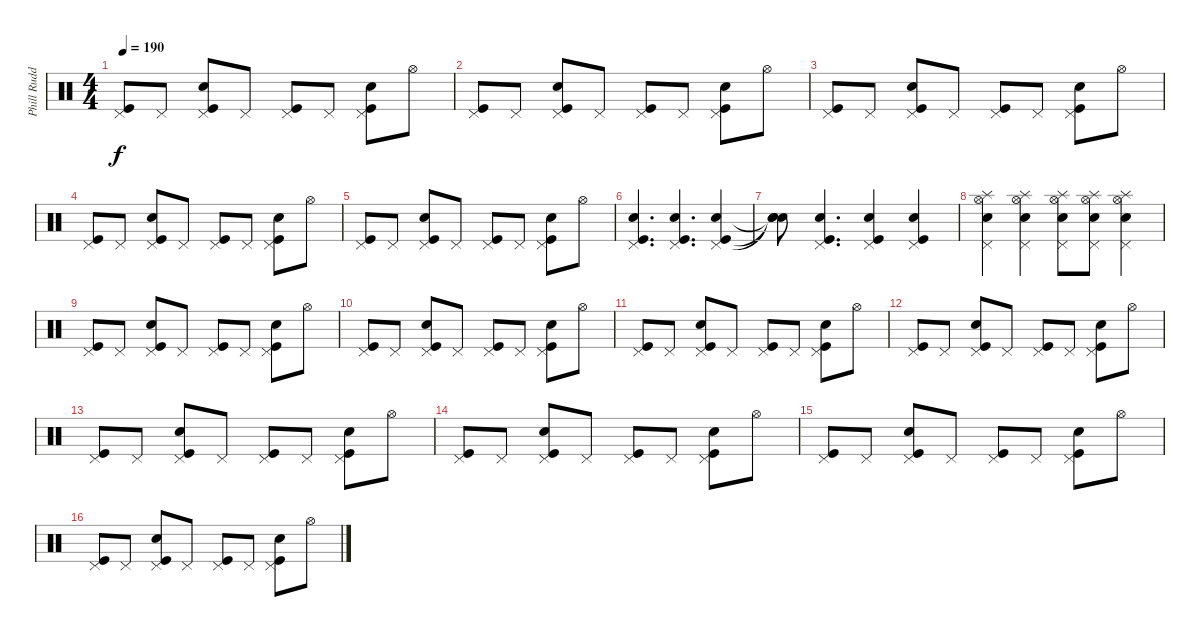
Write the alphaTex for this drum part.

\track ("Phill Rudd (Drums)" "Phill Rudd") {instrument percussion}
\staff {score}
\articulation defaults
\ts (4 4)
\tempo 190
\clef neutral
\ks c
("Pedal Hi-Hat (hit)" "Kick (hit)").8{dy f} "Pedal Hi-Hat (hit)".8 ("Pedal Hi-Hat (hit)" "Snare (hit) 2" "Kick (hit)").8 "Pedal Hi-Hat (hit)".8 ("Pedal Hi-Hat (hit)" "Kick (hit)").8 "Pedal Hi-Hat (hit)".8 ("Pedal Hi-Hat (hit)" "Snare (hit) 2" "Kick (hit)").8 "Hi-Hat (open)".8 |
("Pedal Hi-Hat (hit)" "Kick (hit)").8 "Pedal Hi-Hat (hit)".8 ("Pedal Hi-Hat (hit)" "Snare (hit) 2" "Kick (hit)").8 "Pedal Hi-Hat (hit)".8 ("Pedal Hi-Hat (hit)" "Kick (hit)").8 "Pedal Hi-Hat (hit)".8 ("Pedal Hi-Hat (hit)" "Snare (hit) 2" "Kick (hit)").8 "Hi-Hat (open)".8 |
("Pedal Hi-Hat (hit)" "Kick (hit)").8 "Pedal Hi-Hat (hit)".8 ("Pedal Hi-Hat (hit)" "Snare (hit) 2" "Kick (hit)").8 "Pedal Hi-Hat (hit)".8 ("Pedal Hi-Hat (hit)" "Kick (hit)").8 "Pedal Hi-Hat (hit)".8 ("Pedal Hi-Hat (hit)" "Snare (hit) 2" "Kick (hit)").8 "Hi-Hat (open)".8 |
("Pedal Hi-Hat (hit)" "Kick (hit)").8 "Pedal Hi-Hat (hit)".8 ("Pedal Hi-Hat (hit)" "Snare (hit) 2" "Kick (hit)").8 "Pedal Hi-Hat (hit)".8 ("Pedal Hi-Hat (hit)" "Kick (hit)").8 "Pedal Hi-Hat (hit)".8 ("Pedal Hi-Hat (hit)" "Snare (hit) 2" "Kick (hit)").8 "Hi-Hat (open)".8 |
("Pedal Hi-Hat (hit)" "Kick (hit)").8 "Pedal Hi-Hat (hit)".8 ("Pedal Hi-Hat (hit)" "Snare (hit) 2" "Kick (hit)").8 "Pedal Hi-Hat (hit)".8 ("Pedal Hi-Hat (hit)" "Kick (hit)").8 "Pedal Hi-Hat (hit)".8 ("Pedal Hi-Hat (hit)" "Snare (hit) 2" "Kick (hit)").8 "Hi-Hat (open)".8 |
("Pedal Hi-Hat (hit)" "Snare (hit) 2" "Kick (hit)").4{d} ("Pedal Hi-Hat (hit)" "Snare (hit) 2" "Kick (hit)").4{d} ("Pedal Hi-Hat (hit)" "Snare (hit) 2" "Kick (hit)").4 |
("Snare (hit)"{t} "Snare (hit)"{t} "Snare (hit)"{t}).8 ("Pedal Hi-Hat (hit)" "Snare (hit) 2" "Kick (hit)").4{d} ("Pedal Hi-Hat (hit)" "Snare (hit) 2" "Kick (hit)").4 ("Pedal Hi-Hat (hit)" "Snare (hit) 2" "Kick (hit)").4 |
("Pedal Hi-Hat (hit)" "Snare (hit) 2" "Hi-Hat (open)" "Splash (hit)").4 ("Pedal Hi-Hat (hit)" "Snare (hit) 2" "Hi-Hat (open)" "Splash (hit)").4 ("Pedal Hi-Hat (hit)" "Snare (hit) 2" "Hi-Hat (open)" "Splash (hit)").8 ("Pedal Hi-Hat (hit)" "Snare (hit) 2" "Hi-Hat (open)" "Splash (hit)").8 ("Pedal Hi-Hat (hit)" "Snare (hit) 2" "Hi-Hat (open)" "Splash (hit)").4 |
("Pedal Hi-Hat (hit)" "Kick (hit)").8 "Pedal Hi-Hat (hit)".8 ("Pedal Hi-Hat (hit)" "Snare (hit) 2" "Kick (hit)").8 "Pedal Hi-Hat (hit)".8 ("Pedal Hi-Hat (hit)" "Kick (hit)").8 "Pedal Hi-Hat (hit)".8 ("Pedal Hi-Hat (hit)" "Snare (hit) 2" "Kick (hit)").8 "Hi-Hat (open)".8 |
("Pedal Hi-Hat (hit)" "Kick (hit)").8 "Pedal Hi-Hat (hit)".8 ("Pedal Hi-Hat (hit)" "Snare (hit) 2" "Kick (hit)").8 "Pedal Hi-Hat (hit)".8 ("Pedal Hi-Hat (hit)" "Kick (hit)").8 "Pedal Hi-Hat (hit)".8 ("Pedal Hi-Hat (hit)" "Snare (hit) 2" "Kick (hit)").8 "Hi-Hat (open)".8 |
("Pedal Hi-Hat (hit)" "Kick (hit)").8 "Pedal Hi-Hat (hit)".8 ("Pedal Hi-Hat (hit)" "Snare (hit) 2" "Kick (hit)").8 "Pedal Hi-Hat (hit)".8 ("Pedal Hi-Hat (hit)" "Kick (hit)").8 "Pedal Hi-Hat (hit)".8 ("Pedal Hi-Hat (hit)" "Snare (hit) 2" "Kick (hit)").8 "Hi-Hat (open)".8 |
("Pedal Hi-Hat (hit)" "Kick (hit)").8 "Pedal Hi-Hat (hit)".8 ("Pedal Hi-Hat (hit)" "Snare (hit) 2" "Kick (hit)").8 "Pedal Hi-Hat (hit)".8 ("Pedal Hi-Hat (hit)" "Kick (hit)").8 "Pedal Hi-Hat (hit)".8 ("Pedal Hi-Hat (hit)" "Snare (hit) 2" "Kick (hit)").8 "Hi-Hat (open)".8 |
("Pedal Hi-Hat (hit)" "Kick (hit)").8 "Pedal Hi-Hat (hit)".8 ("Pedal Hi-Hat (hit)" "Snare (hit) 2" "Kick (hit)").8 "Pedal Hi-Hat (hit)".8 ("Pedal Hi-Hat (hit)" "Kick (hit)").8 "Pedal Hi-Hat (hit)".8 ("Pedal Hi-Hat (hit)" "Snare (hit) 2" "Kick (hit)").8 "Hi-Hat (open)".8 |
("Pedal Hi-Hat (hit)" "Kick (hit)").8 "Pedal Hi-Hat (hit)".8 ("Pedal Hi-Hat (hit)" "Snare (hit) 2" "Kick (hit)").8 "Pedal Hi-Hat (hit)".8 ("Pedal Hi-Hat (hit)" "Kick (hit)").8 "Pedal Hi-Hat (hit)".8 ("Pedal Hi-Hat (hit)" "Snare (hit) 2" "Kick (hit)").8 "Hi-Hat (open)".8 |
("Pedal Hi-Hat (hit)" "Kick (hit)").8 "Pedal Hi-Hat (hit)".8 ("Pedal Hi-Hat (hit)" "Snare (hit) 2" "Kick (hit)").8 "Pedal Hi-Hat (hit)".8 ("Pedal Hi-Hat (hit)" "Kick (hit)").8 "Pedal Hi-Hat (hit)".8 ("Pedal Hi-Hat (hit)" "Snare (hit) 2" "Kick (hit)").8 "Hi-Hat (open)".8 |
("Pedal Hi-Hat (hit)" "Kick (hit)").8 "Pedal Hi-Hat (hit)".8 ("Pedal Hi-Hat (hit)" "Snare (hit) 2" "Kick (hit)").8 "Pedal Hi-Hat (hit)".8 ("Pedal Hi-Hat (hit)" "Kick (hit)").8 "Pedal Hi-Hat (hit)".8 ("Pedal Hi-Hat (hit)" "Snare (hit) 2" "Kick (hit)").8 "Hi-Hat (open)".8
